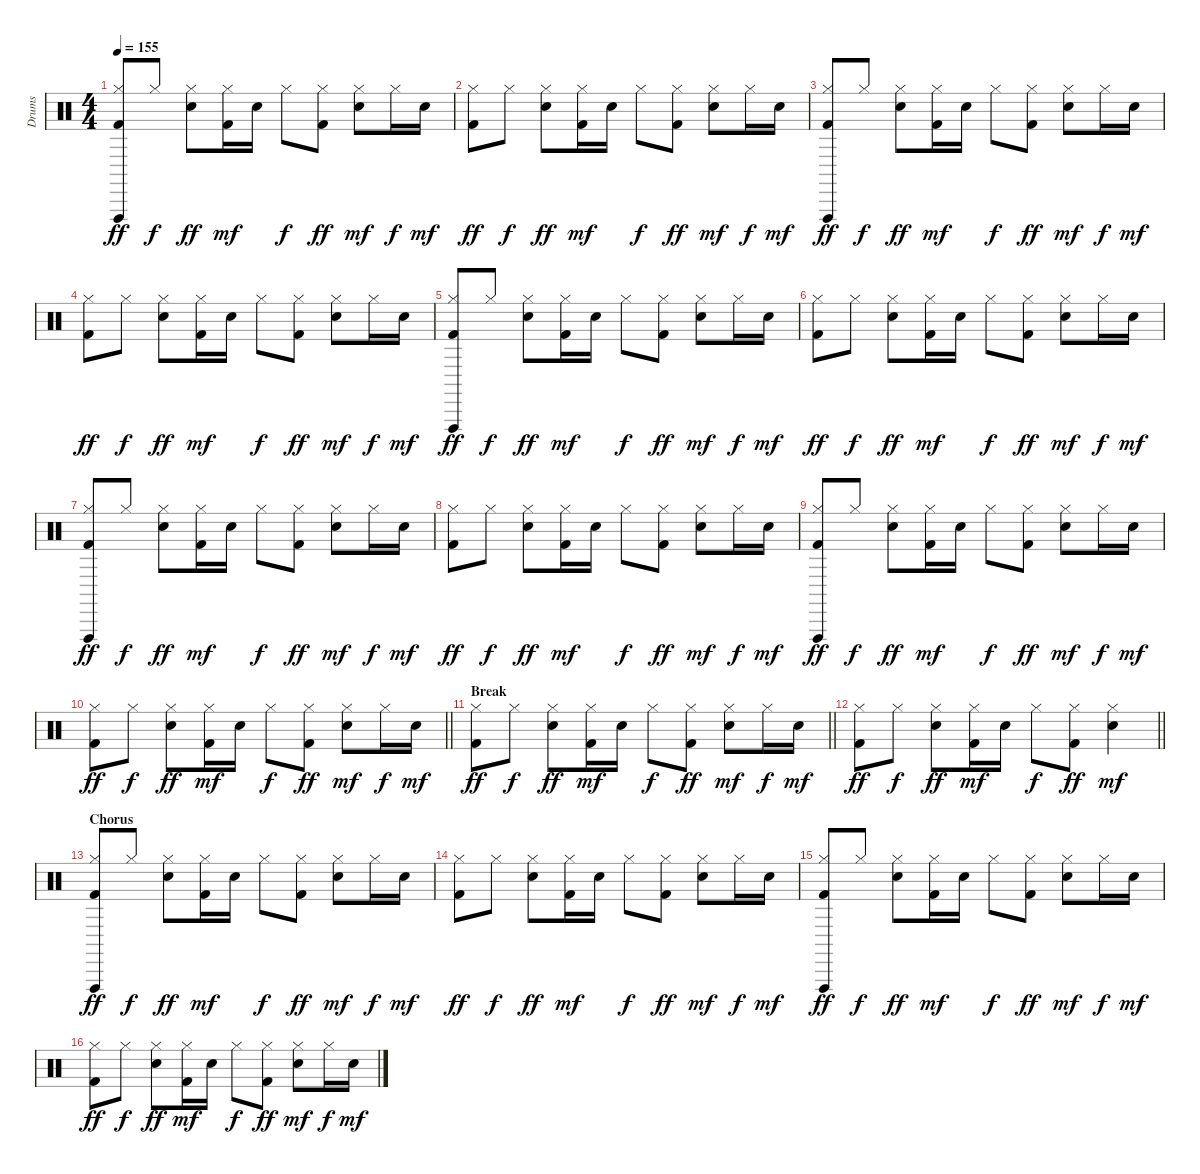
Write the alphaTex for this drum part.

\track ("Drums" "Drums") {instrument percussion}
\staff {score}
\articulation defaults
\ts (4 4)
\tempo 155
\clef neutral
\ks c
("Kick (hit) 2" "Hi-Hat (closed)" "Vibraslap (hit)").8{dy ff} "Hi-Hat (closed)".8{dy f} ("Snare (hit) 2" "Hi-Hat (closed)").8{dy ff} ("Kick (hit) 2" "Hi-Hat (closed)").16{dy mf} "Snare (hit) 2".16 "Hi-Hat (closed)".8{dy f} ("Kick (hit) 2" "Hi-Hat (closed)").8{dy ff} ("Snare (hit) 2" "Hi-Hat (closed)").8{dy mf} "Hi-Hat (closed)".16{dy f} "Snare (hit) 2".16{dy mf} |
("Kick (hit) 2" "Hi-Hat (closed)").8{dy ff} "Hi-Hat (closed)".8{dy f} ("Snare (hit) 2" "Hi-Hat (closed)").8{dy ff} ("Kick (hit) 2" "Hi-Hat (closed)").16{dy mf} "Snare (hit) 2".16 "Hi-Hat (closed)".8{dy f} ("Kick (hit) 2" "Hi-Hat (closed)").8{dy ff} ("Snare (hit) 2" "Hi-Hat (closed)").8{dy mf} "Hi-Hat (closed)".16{dy f} "Snare (hit) 2".16{dy mf} |
("Kick (hit) 2" "Hi-Hat (closed)" "Vibraslap (hit)").8{dy ff} "Hi-Hat (closed)".8{dy f} ("Snare (hit) 2" "Hi-Hat (closed)").8{dy ff} ("Kick (hit) 2" "Hi-Hat (closed)").16{dy mf} "Snare (hit) 2".16 "Hi-Hat (closed)".8{dy f} ("Kick (hit) 2" "Hi-Hat (closed)").8{dy ff} ("Snare (hit) 2" "Hi-Hat (closed)").8{dy mf} "Hi-Hat (closed)".16{dy f} "Snare (hit) 2".16{dy mf} |
("Kick (hit) 2" "Hi-Hat (closed)").8{dy ff} "Hi-Hat (closed)".8{dy f} ("Snare (hit) 2" "Hi-Hat (closed)").8{dy ff} ("Kick (hit) 2" "Hi-Hat (closed)").16{dy mf} "Snare (hit) 2".16 "Hi-Hat (closed)".8{dy f} ("Kick (hit) 2" "Hi-Hat (closed)").8{dy ff} ("Snare (hit) 2" "Hi-Hat (closed)").8{dy mf} "Hi-Hat (closed)".16{dy f} "Snare (hit) 2".16{dy mf} |
("Kick (hit) 2" "Hi-Hat (closed)" "Vibraslap (hit)").8{dy ff} "Hi-Hat (closed)".8{dy f} ("Snare (hit) 2" "Hi-Hat (closed)").8{dy ff} ("Kick (hit) 2" "Hi-Hat (closed)").16{dy mf} "Snare (hit) 2".16 "Hi-Hat (closed)".8{dy f} ("Kick (hit) 2" "Hi-Hat (closed)").8{dy ff} ("Snare (hit) 2" "Hi-Hat (closed)").8{dy mf} "Hi-Hat (closed)".16{dy f} "Snare (hit) 2".16{dy mf} |
("Kick (hit) 2" "Hi-Hat (closed)").8{dy ff} "Hi-Hat (closed)".8{dy f} ("Snare (hit) 2" "Hi-Hat (closed)").8{dy ff} ("Kick (hit) 2" "Hi-Hat (closed)").16{dy mf} "Snare (hit) 2".16 "Hi-Hat (closed)".8{dy f} ("Kick (hit) 2" "Hi-Hat (closed)").8{dy ff} ("Snare (hit) 2" "Hi-Hat (closed)").8{dy mf} "Hi-Hat (closed)".16{dy f} "Snare (hit) 2".16{dy mf} |
("Kick (hit) 2" "Hi-Hat (closed)" "Vibraslap (hit)").8{dy ff} "Hi-Hat (closed)".8{dy f} ("Snare (hit) 2" "Hi-Hat (closed)").8{dy ff} ("Kick (hit) 2" "Hi-Hat (closed)").16{dy mf} "Snare (hit) 2".16 "Hi-Hat (closed)".8{dy f} ("Kick (hit) 2" "Hi-Hat (closed)").8{dy ff} ("Snare (hit) 2" "Hi-Hat (closed)").8{dy mf} "Hi-Hat (closed)".16{dy f} "Snare (hit) 2".16{dy mf} |
("Kick (hit) 2" "Hi-Hat (closed)").8{dy ff} "Hi-Hat (closed)".8{dy f} ("Snare (hit) 2" "Hi-Hat (closed)").8{dy ff} ("Kick (hit) 2" "Hi-Hat (closed)").16{dy mf} "Snare (hit) 2".16 "Hi-Hat (closed)".8{dy f} ("Kick (hit) 2" "Hi-Hat (closed)").8{dy ff} ("Snare (hit) 2" "Hi-Hat (closed)").8{dy mf} "Hi-Hat (closed)".16{dy f} "Snare (hit) 2".16{dy mf} |
("Kick (hit) 2" "Hi-Hat (closed)" "Vibraslap (hit)").8{dy ff} "Hi-Hat (closed)".8{dy f} ("Snare (hit) 2" "Hi-Hat (closed)").8{dy ff} ("Kick (hit) 2" "Hi-Hat (closed)").16{dy mf} "Snare (hit) 2".16 "Hi-Hat (closed)".8{dy f} ("Kick (hit) 2" "Hi-Hat (closed)").8{dy ff} ("Snare (hit) 2" "Hi-Hat (closed)").8{dy mf} "Hi-Hat (closed)".16{dy f} "Snare (hit) 2".16{dy mf} |
\barLineRight lightlight
("Kick (hit) 2" "Hi-Hat (closed)").8{dy ff} "Hi-Hat (closed)".8{dy f} ("Snare (hit) 2" "Hi-Hat (closed)").8{dy ff} ("Kick (hit) 2" "Hi-Hat (closed)").16{dy mf} "Snare (hit) 2".16 "Hi-Hat (closed)".8{dy f} ("Kick (hit) 2" "Hi-Hat (closed)").8{dy ff} ("Snare (hit) 2" "Hi-Hat (closed)").8{dy mf} "Hi-Hat (closed)".16{dy f} "Snare (hit) 2".16{dy mf} |
\section ("" "Break")
\barLineRight lightlight
("Kick (hit) 2" "Hi-Hat (closed)").8{dy ff} "Hi-Hat (closed)".8{dy f} ("Snare (hit) 2" "Hi-Hat (closed)").8{dy ff} ("Kick (hit) 2" "Hi-Hat (closed)").16{dy mf} "Snare (hit) 2".16 "Hi-Hat (closed)".8{dy f} ("Kick (hit) 2" "Hi-Hat (closed)").8{dy ff} ("Snare (hit) 2" "Hi-Hat (closed)").8{dy mf} "Hi-Hat (closed)".16{dy f} "Snare (hit) 2".16{dy mf} |
\barLineRight lightlight
("Kick (hit) 2" "Hi-Hat (closed)").8{dy ff} "Hi-Hat (closed)".8{dy f} ("Snare (hit) 2" "Hi-Hat (closed)").8{dy ff} ("Kick (hit) 2" "Hi-Hat (closed)").16{dy mf} "Snare (hit) 2".16 "Hi-Hat (closed)".8{dy f} ("Kick (hit) 2" "Hi-Hat (closed)").8{dy ff} ("Snare (hit) 2" "Hi-Hat (closed)").4{dy mf} |
\section ("" "Chorus")
("Kick (hit) 2" "Hi-Hat (closed)" "Vibraslap (hit)").8{dy ff} "Hi-Hat (closed)".8{dy f} ("Snare (hit) 2" "Hi-Hat (closed)").8{dy ff} ("Kick (hit) 2" "Hi-Hat (closed)").16{dy mf} "Snare (hit) 2".16 "Hi-Hat (closed)".8{dy f} ("Kick (hit) 2" "Hi-Hat (closed)").8{dy ff} ("Snare (hit) 2" "Hi-Hat (closed)").8{dy mf} "Hi-Hat (closed)".16{dy f} "Snare (hit) 2".16{dy mf} |
("Kick (hit) 2" "Hi-Hat (closed)").8{dy ff} "Hi-Hat (closed)".8{dy f} ("Snare (hit) 2" "Hi-Hat (closed)").8{dy ff} ("Kick (hit) 2" "Hi-Hat (closed)").16{dy mf} "Snare (hit) 2".16 "Hi-Hat (closed)".8{dy f} ("Kick (hit) 2" "Hi-Hat (closed)").8{dy ff} ("Snare (hit) 2" "Hi-Hat (closed)").8{dy mf} "Hi-Hat (closed)".16{dy f} "Snare (hit) 2".16{dy mf} |
("Kick (hit) 2" "Hi-Hat (closed)" "Vibraslap (hit)").8{dy ff} "Hi-Hat (closed)".8{dy f} ("Snare (hit) 2" "Hi-Hat (closed)").8{dy ff} ("Kick (hit) 2" "Hi-Hat (closed)").16{dy mf} "Snare (hit) 2".16 "Hi-Hat (closed)".8{dy f} ("Kick (hit) 2" "Hi-Hat (closed)").8{dy ff} ("Snare (hit) 2" "Hi-Hat (closed)").8{dy mf} "Hi-Hat (closed)".16{dy f} "Snare (hit) 2".16{dy mf} |
("Kick (hit) 2" "Hi-Hat (closed)").8{dy ff} "Hi-Hat (closed)".8{dy f} ("Snare (hit) 2" "Hi-Hat (closed)").8{dy ff} ("Kick (hit) 2" "Hi-Hat (closed)").16{dy mf} "Snare (hit) 2".16 "Hi-Hat (closed)".8{dy f} ("Kick (hit) 2" "Hi-Hat (closed)").8{dy ff} ("Snare (hit) 2" "Hi-Hat (closed)").8{dy mf} "Hi-Hat (closed)".16{dy f} "Snare (hit) 2".16{dy mf}
